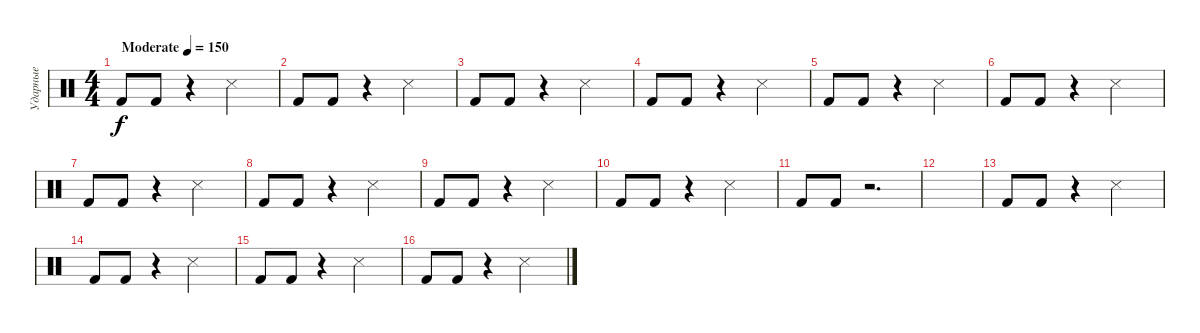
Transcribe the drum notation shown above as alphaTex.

\track ("Ударные" "Ударные") {instrument percussion}
\staff {score}
\articulation defaults
\ts (4 4)
\tempo (150 "Moderate")
\clef neutral
\ks c "Kick (hit) 2".8{dy f} "Kick (hit) 2".8
r.4 "Snare (side stick) 3".2 |
"Kick (hit) 2".8 "Kick (hit) 2".8 r.4 "Snare (side stick) 3".2 |
"Kick (hit) 2".8 "Kick (hit) 2".8 r.4 "Snare (side stick) 3".2 |
"Kick (hit) 2".8 "Kick (hit) 2".8 r.4 "Snare (side stick) 3".2 |
"Kick (hit) 2".8 "Kick (hit) 2".8 r.4 "Snare (side stick) 3".2 |
"Kick (hit) 2".8 "Kick (hit) 2".8 r.4 "Snare (side stick) 3".2 |
"Kick (hit) 2".8 "Kick (hit) 2".8 r.4 "Snare (side stick) 3".2 |
"Kick (hit) 2".8 "Kick (hit) 2".8 r.4 "Snare (side stick) 3".2 |
"Kick (hit) 2".8 "Kick (hit) 2".8 r.4 "Snare (side stick) 3".2 |
"Kick (hit) 2".8 "Kick (hit) 2".8 r.4 "Snare (side stick) 3".2 |
"Kick (hit) 2".8 "Kick (hit) 2".8 r.2{d} |
|
"Kick (hit) 2".8 "Kick (hit) 2".8 r.4 "Snare (side stick) 3".2 |
"Kick (hit) 2".8 "Kick (hit) 2".8 r.4 "Snare (side stick) 3".2 |
"Kick (hit) 2".8 "Kick (hit) 2".8 r.4 "Snare (side stick) 3".2 |
"Kick (hit) 2".8 "Kick (hit) 2".8 r.4 "Snare (side stick) 3".2
